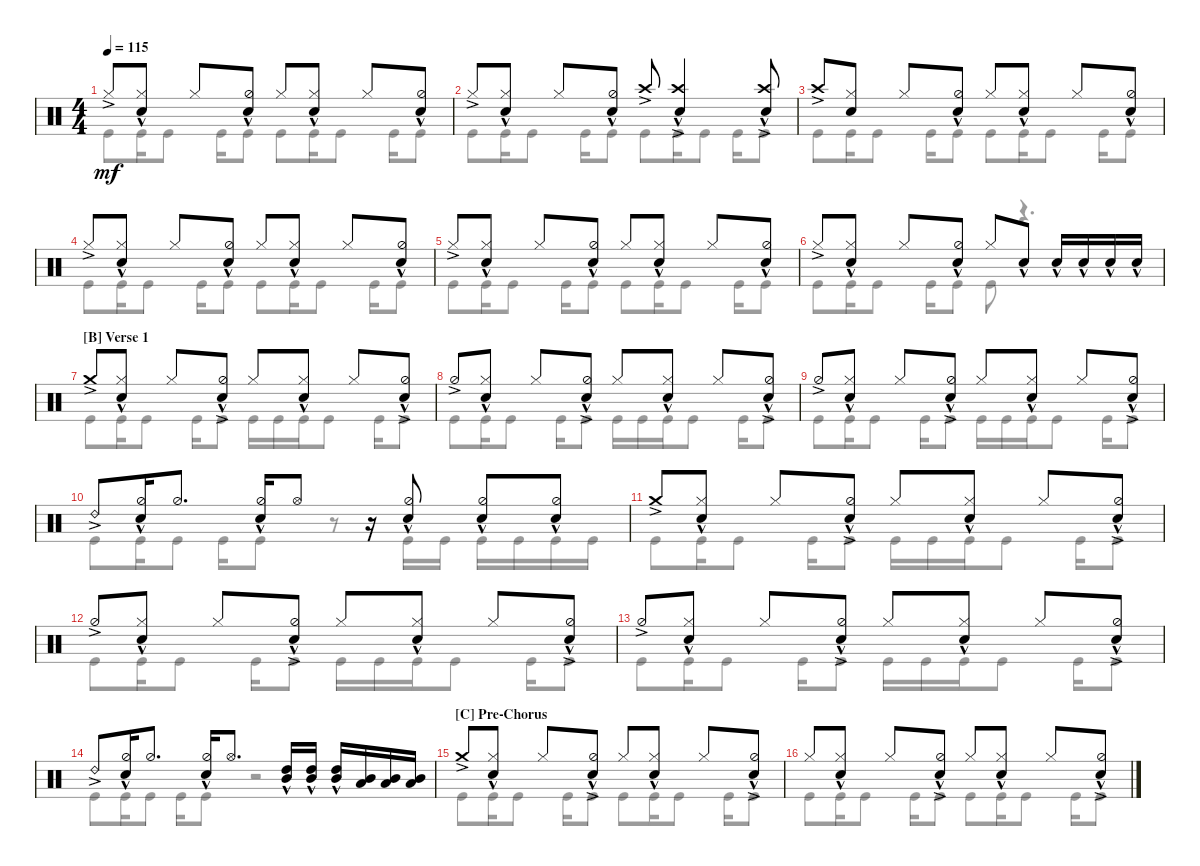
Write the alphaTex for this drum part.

\defaultSystemsLayout 4
\bracketExtendMode groupsimilarinstruments
\singleTrackTrackNamePolicy hidden
\multiTrackTrackNamePolicy hidden
\firstSystemTrackNameOrientation horizontal
\otherSystemsTrackNameOrientation horizontal
\track ("Maksim Udalov" "Drums") {instrument percussion}
\staff {score}
\articulation defaults
\voice
\ts (4 4)
\tempo 115
\clef neutral
\scale
1.02648
\ks c "Hi-Hat (closed)"{ac}.8{dy mf}
("Hi-Hat (closed)" "Snare (hit) 2"{hac}).8 "Hi-Hat (closed)".8 ("Snare (hit) 2"{hac} "Hi-Hat (half)").8 "Hi-Hat (closed)".8 ("Hi-Hat (closed)" "Snare (hit) 2"{hac}).8 "Hi-Hat (closed)".8 ("Snare (hit) 2"{hac} "Hi-Hat (half)").8 |
\scale
0.973518 "Hi-Hat (closed)"{ac}.8 ("Hi-Hat (closed)" "Snare (hit) 2"{hac}).8 "Hi-Hat (closed)".8 ("Snare (hit) 2"{hac} "Hi-Hat (half)").8 "Crash high (hit)"{ac}.8 ("Snare (hit) 2"{hac} "Crash high (hit)"{ac}).4 ("Snare (hit) 2"{hac} "Crash high (hit)"{ac}).8 |
\scale
1.02648 "Crash high (hit)"{ac}.8 ("Hi-Hat (closed)" "Snare (hit) 2").8 "Hi-Hat (closed)".8 ("Snare (hit) 2"{hac} "Hi-Hat (half)").8 "Hi-Hat (closed)".8 ("Hi-Hat (closed)" "Snare (hit) 2"{hac}).8 "Hi-Hat (closed)".8 ("Snare (hit) 2"{hac} "Hi-Hat (half)").8 |
\scale
0.973518 "Hi-Hat (closed)"{ac}.8 ("Hi-Hat (closed)" "Snare (hit) 2"{hac}).8 "Hi-Hat (closed)".8 ("Snare (hit) 2"{hac} "Hi-Hat (half)").8 "Hi-Hat (closed)".8 ("Hi-Hat (closed)" "Snare (hit) 2"{hac}).8 "Hi-Hat (closed)".8 ("Snare (hit) 2"{hac} "Hi-Hat (half)").8 |
\scale
1.02648 "Hi-Hat (closed)"{ac}.8 ("Hi-Hat (closed)" "Snare (hit) 2"{hac}).8 "Hi-Hat (closed)".8 ("Snare (hit) 2"{hac} "Hi-Hat (half)").8 "Hi-Hat (closed)".8 ("Hi-Hat (closed)" "Snare (hit) 2"{hac}).8 "Hi-Hat (closed)".8 ("Snare (hit) 2"{hac} "Hi-Hat (half)").8 |
\scale
0.973518 "Hi-Hat (closed)"{ac}.8 ("Hi-Hat (closed)" "Snare (hit) 2"{hac}).8 "Hi-Hat (closed)".8 ("Snare (hit) 2"{hac} "Hi-Hat (half)").8 "Hi-Hat (closed)".8 "Snare (hit) 2"{hac}.8 "Snare (hit) 2"{hac}.16 "Snare (hit) 2"{hac}.16 "Snare (hit) 2"{hac}.16 "Snare (hit) 2"{hac}.16 |
\section ("B" "Verse 1")
\scale
1.02648 "Crash medium (hit)"{ac}.8 ("Hi-Hat (closed)" "Snare (hit) 2"{hac}).8 "Hi-Hat (closed)".8 ("Snare (hit) 2"{hac} "Hi-Hat (half)"{ac}).8 "Hi-Hat (closed)".8 ("Hi-Hat (closed)" "Snare (hit) 2"{hac}).8 "Hi-Hat (closed)".8 ("Snare (hit) 2"{hac} "Hi-Hat (half)"{ac}).8 |
\scale
0.973518 "Hi-Hat (half)"{ac}.8 ("Snare (hit) 2"{hac} "Hi-Hat (closed)").8 "Hi-Hat (closed)".8 ("Snare (hit) 2"{hac} "Hi-Hat (half)"{ac}).8 "Hi-Hat (closed)".8 ("Hi-Hat (closed)" "Snare (hit) 2"{hac}).8 "Hi-Hat (closed)".8 ("Snare (hit) 2"{hac} "Hi-Hat (half)"{ac}).8 |
\scale
1.02648 "Hi-Hat (half)"{ac}.8 ("Snare (hit) 2"{hac} "Hi-Hat (closed)").8 "Hi-Hat (closed)".8 ("Snare (hit) 2"{hac} "Hi-Hat (half)"{ac}).8 "Hi-Hat (closed)".8 ("Hi-Hat (closed)" "Snare (hit) 2"{hac}).8 "Hi-Hat (closed)".8 ("Snare (hit) 2"{hac} "Hi-Hat (half)"{ac}).8 |
\scale
0.973518 "Ride (bell) 2"{ac}.8 ("Hi-Hat (half)" "Snare (hit) 2"{hac}).16 "Hi-Hat (half)".8{d} ("Hi-Hat (half)" "Snare (hit) 2"{hac}).16 "Hi-Hat (open)".8 r.16 ("Hi-Hat (half)" "Snare (hit) 2"{hac}).8 ("Snare (hit) 2"{hac} "Hi-Hat (half)").8 ("Snare (hit) 2"{hac} "Hi-Hat (half)").8 |
\scale
1.02648 "Crash medium (hit)"{ac}.8 ("Hi-Hat (closed)" "Snare (hit) 2"{hac}).8 "Hi-Hat (closed)".8 ("Snare (hit) 2"{hac} "Hi-Hat (half)"{ac}).8 "Hi-Hat (closed)".8 ("Hi-Hat (closed)" "Snare (hit) 2"{hac}).8 "Hi-Hat (closed)".8 ("Snare (hit) 2"{hac} "Hi-Hat (half)"{ac}).8 |
\scale
0.973518 "Hi-Hat (half)"{ac}.8 ("Snare (hit) 2"{hac} "Hi-Hat (closed)").8 "Hi-Hat (closed)".8 ("Snare (hit) 2"{hac} "Hi-Hat (half)"{ac}).8 "Hi-Hat (closed)".8 ("Hi-Hat (closed)" "Snare (hit) 2"{hac}).8 "Hi-Hat (closed)".8 ("Snare (hit) 2"{hac} "Hi-Hat (half)"{ac}).8 |
\scale
1.02648 "Hi-Hat (half)"{ac}.8 ("Snare (hit) 2"{hac} "Hi-Hat (closed)").8 "Hi-Hat (closed)".8 ("Snare (hit) 2"{hac} "Hi-Hat (half)"{ac}).8 "Hi-Hat (closed)".8 ("Hi-Hat (closed)" "Snare (hit) 2"{hac}).8 "Hi-Hat (closed)".8 ("Snare (hit) 2"{hac} "Hi-Hat (half)"{ac}).8 |
\scale
0.973518 "Ride (bell) 2"{ac}.8 ("Hi-Hat (half)" "Snare (hit) 2"{hac}).16 "Hi-Hat (half)".8{d} ("Hi-Hat (half)" "Snare (hit) 2"{hac}).16 "Hi-Hat (open)".8{d} ("Mid Tom (hit)"{hac} "High Tom (hit)"{hac}).16 ("Mid Tom (hit)"{hac} "High Tom (hit)"{hac}).16 ("Mid Tom (hit)"{hac} "High Tom (hit)"{hac}).16 ("Mid Tom (hit)" "Low Tom (hit)").16 ("Mid Tom (hit)" "Low Tom (hit)").16 ("Mid Tom (hit)" "Low Tom (hit)").16 |
\section ("C" "Pre-Chorus")
\scale
1.02648 "Crash medium (hit)"{ac}.8 ("Hi-Hat (closed)" "Snare (hit) 2"{hac}).8 "Hi-Hat (closed)".8 ("Snare (hit) 2"{hac} "Hi-Hat (half)"{ac}).8 "Hi-Hat (closed)".8 ("Hi-Hat (closed)" "Snare (hit) 2"{hac}).8 "Hi-Hat (closed)".8 ("Snare (hit) 2"{hac} "Hi-Hat (half)"{ac}).8 |
\scale
0.973518 "Hi-Hat (closed)".8 ("Hi-Hat (closed)" "Snare (hit) 2"{hac}).8 "Hi-Hat (closed)".8 ("Snare (hit) 2"{hac} "Hi-Hat (half)"{ac}).8 "Hi-Hat (closed)".8 ("Hi-Hat (closed)" "Snare (hit) 2"{hac}).8 "Hi-Hat (closed)".8 ("Snare (hit) 2"{hac} "Hi-Hat (half)"{ac}).8
\voice
\clef neutral
\ottava regular
\simile none
\scale
1.02648
\ks c "Kick (hit)".8{dy mf} "Kick (hit)".16 "Kick (hit)".8 "Kick (hit)".16 "Kick (hit)".8 "Kick (hit)".8 "Kick (hit)".16 "Kick (hit)".8 "Kick (hit)".16 "Kick (hit)".8
|
\scale
0.973518 "Kick (hit)".8 "Kick (hit)".16 "Kick (hit)".8 "Kick (hit)".16 "Kick (hit)".8 "Kick (hit)".8 "Kick (hit)".16 "Kick (hit)".8 "Kick (hit)".16 "Kick (hit)".8 |
\scale
1.02648 "Kick (hit)".8 "Kick (hit)".16 "Kick (hit)".8 "Kick (hit)".16 "Kick (hit)".8 "Kick (hit)".8 "Kick (hit)".16 "Kick (hit)".8 "Kick (hit)".16 "Kick (hit)".8 |
\scale
0.973518 "Kick (hit)".8 "Kick (hit)".16 "Kick (hit)".8 "Kick (hit)".16 "Kick (hit)".8 "Kick (hit)".8 "Kick (hit)".16 "Kick (hit)".8 "Kick (hit)".16 "Kick (hit)".8 |
\scale
1.02648 "Kick (hit)".8 "Kick (hit)".16 "Kick (hit)".8 "Kick (hit)".16 "Kick (hit)".8 "Kick (hit)".8 "Kick (hit)".16 "Kick (hit)".8 "Kick (hit)".16 "Kick (hit)".8 |
\scale
0.973518 "Kick (hit)".8 "Kick (hit)".16 "Kick (hit)".8 "Kick (hit)".16 "Kick (hit)".8 "Kick (hit)".8 r.4{d} |
\scale
1.02648 "Kick (hit)".8 "Kick (hit)".16 "Kick (hit)".8 "Kick (hit)".16 "Kick (hit)".8 "Kick (hit)".16 "Kick (hit)".16 "Kick (hit)".16 "Kick (hit)".8 "Kick (hit)".16 "Kick (hit)".8 |
\scale
0.973518 "Kick (hit)".8 "Kick (hit)".16 "Kick (hit)".8 "Kick (hit)".16 "Kick (hit)".8 "Kick (hit)".16 "Kick (hit)".16 "Kick (hit)".16 "Kick (hit)".8 "Kick (hit)".16 "Kick (hit)".8 |
\scale
1.02648 "Kick (hit)".8 "Kick (hit)".16 "Kick (hit)".8 "Kick (hit)".16 "Kick (hit)".8 "Kick (hit)".16 "Kick (hit)".16 "Kick (hit)".16 "Kick (hit)".8 "Kick (hit)".16 "Kick (hit)".8 |
\scale
0.973518 "Kick (hit)".8 "Kick (hit)".16 "Kick (hit)".8 "Kick (hit)".16 "Kick (hit)".8 r.8 "Kick (hit)".16 "Kick (hit)".16 "Kick (hit)".16 "Kick (hit)".16 "Kick (hit)".16 "Kick (hit)".16 |
\scale
1.02648 "Kick (hit)".8 "Kick (hit)".16 "Kick (hit)".8 "Kick (hit)".16 "Kick (hit)".8 "Kick (hit)".16 "Kick (hit)".16 "Kick (hit)".16 "Kick (hit)".8 "Kick (hit)".16 "Kick (hit)".8 |
\scale
0.973518 "Kick (hit)".8 "Kick (hit)".16 "Kick (hit)".8 "Kick (hit)".16 "Kick (hit)".8 "Kick (hit)".16 "Kick (hit)".16 "Kick (hit)".16 "Kick (hit)".8 "Kick (hit)".16 "Kick (hit)".8 |
\scale
1.02648 "Kick (hit)".8 "Kick (hit)".16 "Kick (hit)".8 "Kick (hit)".16 "Kick (hit)".8 "Kick (hit)".16 "Kick (hit)".16 "Kick (hit)".16 "Kick (hit)".8 "Kick (hit)".16 "Kick (hit)".8 |
\scale
0.973518 "Kick (hit)".8 "Kick (hit)".16 "Kick (hit)".8 "Kick (hit)".16 "Kick (hit)".8 r.2 |
\scale
1.02648 "Kick (hit)".8 "Kick (hit)".16 "Kick (hit)".8 "Kick (hit)".16 "Kick (hit)".8 "Kick (hit)".8 "Kick (hit)".16 "Kick (hit)".8 "Kick (hit)".16 "Kick (hit)".8 |
\scale
0.973518 "Kick (hit)".8 "Kick (hit)".16 "Kick (hit)".8 "Kick (hit)".16 "Kick (hit)".8 "Kick (hit)".8 "Kick (hit)".16 "Kick (hit)".8 "Kick (hit)".16 "Kick (hit)".8
